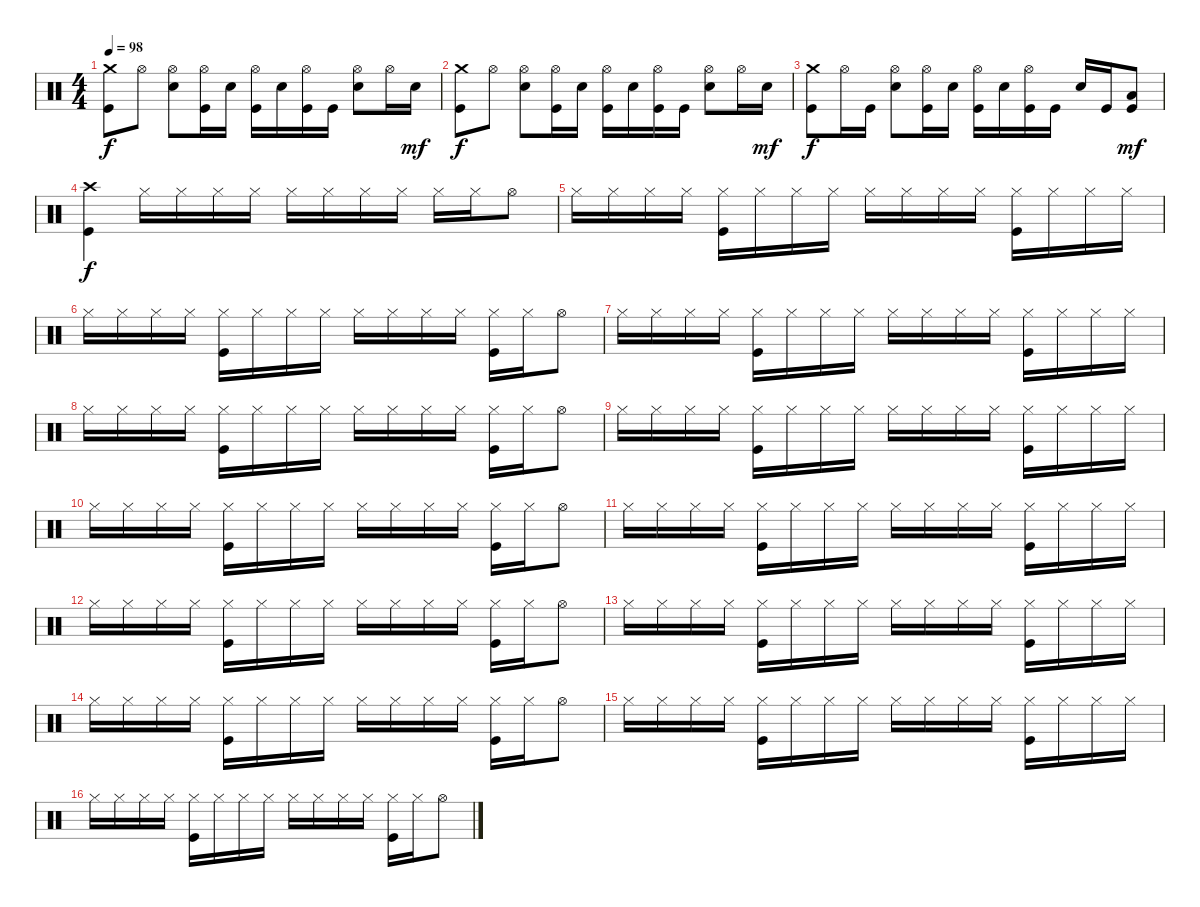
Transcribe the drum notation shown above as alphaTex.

\track "" {instrument percussion}
\staff {score}
\articulation defaults
\ts (4 4)
\tempo 98
\clef neutral
\ks c
("Crash medium (hit)" "Kick (hit)").8{dy f} "Hi-Hat (open)".8 ("Hi-Hat (open)" "Electric Snare (hit)").8 ("Hi-Hat (open)" "Kick (hit)").16 "Electric Snare (hit)".16 ("Hi-Hat (open)" "Kick (hit)").16 "Electric Snare (hit)".16 ("Hi-Hat (open)" "Kick (hit)").16 "Kick (hit)".16 ("Hi-Hat (open)" "Electric Snare (hit)").8 "Hi-Hat (open)".16 "Electric Snare (hit)".16{dy mf} |
("Crash medium (hit)" "Kick (hit)").8{dy f} "Hi-Hat (open)".8 ("Hi-Hat (open)" "Electric Snare (hit)").8 ("Hi-Hat (open)" "Kick (hit)").16 "Electric Snare (hit)".16 ("Hi-Hat (open)" "Kick (hit)").16 "Electric Snare (hit)".16 ("Hi-Hat (open)" "Kick (hit)").16 "Kick (hit)".16 ("Hi-Hat (open)" "Electric Snare (hit)").8 "Hi-Hat (open)".16 "Electric Snare (hit)".16{dy mf} |
("Crash medium (hit)" "Kick (hit)").8{dy f} "Hi-Hat (open)".16 "Kick (hit)".16 ("Hi-Hat (open)" "Electric Snare (hit)").8 ("Hi-Hat (open)" "Kick (hit)").16 "Electric Snare (hit)".16 ("Hi-Hat (open)" "Kick (hit)").16 "Electric Snare (hit)".16 ("Hi-Hat (open)" "Kick (hit)").16 "Kick (hit)".16 "Electric Snare (hit)".16 "Kick (hit)".16 ("Kick (hit)" "Low Floor Tom (hit)").8{dy mf} |
("Crash high (hit)" "Kick (hit)").4{dy f} "Hi-Hat (closed)".16 "Hi-Hat (closed)".16 "Hi-Hat (closed)".16 "Hi-Hat (closed)".16 "Hi-Hat (closed)".16 "Hi-Hat (closed)".16 "Hi-Hat (closed)".16 "Hi-Hat (closed)".16 "Hi-Hat (closed)".16 "Hi-Hat (closed)".16 "Hi-Hat (open)".8 |
"Hi-Hat (closed)".16 "Hi-Hat (closed)".16 "Hi-Hat (closed)".16 "Hi-Hat (closed)".16 ("Hi-Hat (closed)" "Kick (hit)").16 "Hi-Hat (closed)".16 "Hi-Hat (closed)".16 "Hi-Hat (closed)".16 "Hi-Hat (closed)".16 "Hi-Hat (closed)".16 "Hi-Hat (closed)".16 "Hi-Hat (closed)".16 ("Hi-Hat (closed)" "Kick (hit)").16 "Hi-Hat (closed)".16 "Hi-Hat (closed)".16 "Hi-Hat (closed)".16 |
"Hi-Hat (closed)".16 "Hi-Hat (closed)".16 "Hi-Hat (closed)".16 "Hi-Hat (closed)".16 ("Hi-Hat (closed)" "Kick (hit)").16 "Hi-Hat (closed)".16 "Hi-Hat (closed)".16 "Hi-Hat (closed)".16 "Hi-Hat (closed)".16 "Hi-Hat (closed)".16 "Hi-Hat (closed)".16 "Hi-Hat (closed)".16 ("Hi-Hat (closed)" "Kick (hit)").16 "Hi-Hat (closed)".16 "Hi-Hat (open)".8 |
"Hi-Hat (closed)".16 "Hi-Hat (closed)".16 "Hi-Hat (closed)".16 "Hi-Hat (closed)".16 ("Hi-Hat (closed)" "Kick (hit)").16 "Hi-Hat (closed)".16 "Hi-Hat (closed)".16 "Hi-Hat (closed)".16 "Hi-Hat (closed)".16 "Hi-Hat (closed)".16 "Hi-Hat (closed)".16 "Hi-Hat (closed)".16 ("Hi-Hat (closed)" "Kick (hit)").16 "Hi-Hat (closed)".16 "Hi-Hat (closed)".16 "Hi-Hat (closed)".16 |
"Hi-Hat (closed)".16 "Hi-Hat (closed)".16 "Hi-Hat (closed)".16 "Hi-Hat (closed)".16 ("Hi-Hat (closed)" "Kick (hit)").16 "Hi-Hat (closed)".16 "Hi-Hat (closed)".16 "Hi-Hat (closed)".16 "Hi-Hat (closed)".16 "Hi-Hat (closed)".16 "Hi-Hat (closed)".16 "Hi-Hat (closed)".16 ("Hi-Hat (closed)" "Kick (hit)").16 "Hi-Hat (closed)".16 "Hi-Hat (open)".8 |
"Hi-Hat (closed)".16 "Hi-Hat (closed)".16 "Hi-Hat (closed)".16 "Hi-Hat (closed)".16 ("Hi-Hat (closed)" "Kick (hit)").16 "Hi-Hat (closed)".16 "Hi-Hat (closed)".16 "Hi-Hat (closed)".16 "Hi-Hat (closed)".16 "Hi-Hat (closed)".16 "Hi-Hat (closed)".16 "Hi-Hat (closed)".16 ("Hi-Hat (closed)" "Kick (hit)").16 "Hi-Hat (closed)".16 "Hi-Hat (closed)".16 "Hi-Hat (closed)".16 |
"Hi-Hat (closed)".16 "Hi-Hat (closed)".16 "Hi-Hat (closed)".16 "Hi-Hat (closed)".16 ("Hi-Hat (closed)" "Kick (hit)").16 "Hi-Hat (closed)".16 "Hi-Hat (closed)".16 "Hi-Hat (closed)".16 "Hi-Hat (closed)".16 "Hi-Hat (closed)".16 "Hi-Hat (closed)".16 "Hi-Hat (closed)".16 ("Hi-Hat (closed)" "Kick (hit)").16 "Hi-Hat (closed)".16 "Hi-Hat (open)".8 |
"Hi-Hat (closed)".16 "Hi-Hat (closed)".16 "Hi-Hat (closed)".16 "Hi-Hat (closed)".16 ("Hi-Hat (closed)" "Kick (hit)").16 "Hi-Hat (closed)".16 "Hi-Hat (closed)".16 "Hi-Hat (closed)".16 "Hi-Hat (closed)".16 "Hi-Hat (closed)".16 "Hi-Hat (closed)".16 "Hi-Hat (closed)".16 ("Hi-Hat (closed)" "Kick (hit)").16 "Hi-Hat (closed)".16 "Hi-Hat (closed)".16 "Hi-Hat (closed)".16 |
"Hi-Hat (closed)".16 "Hi-Hat (closed)".16 "Hi-Hat (closed)".16 "Hi-Hat (closed)".16 ("Hi-Hat (closed)" "Kick (hit)").16 "Hi-Hat (closed)".16 "Hi-Hat (closed)".16 "Hi-Hat (closed)".16 "Hi-Hat (closed)".16 "Hi-Hat (closed)".16 "Hi-Hat (closed)".16 "Hi-Hat (closed)".16 ("Hi-Hat (closed)" "Kick (hit)").16 "Hi-Hat (closed)".16 "Hi-Hat (open)".8 |
"Hi-Hat (closed)".16 "Hi-Hat (closed)".16 "Hi-Hat (closed)".16 "Hi-Hat (closed)".16 ("Hi-Hat (closed)" "Kick (hit)").16 "Hi-Hat (closed)".16 "Hi-Hat (closed)".16 "Hi-Hat (closed)".16 "Hi-Hat (closed)".16 "Hi-Hat (closed)".16 "Hi-Hat (closed)".16 "Hi-Hat (closed)".16 ("Hi-Hat (closed)" "Kick (hit)").16 "Hi-Hat (closed)".16 "Hi-Hat (closed)".16 "Hi-Hat (closed)".16 |
"Hi-Hat (closed)".16 "Hi-Hat (closed)".16 "Hi-Hat (closed)".16 "Hi-Hat (closed)".16 ("Hi-Hat (closed)" "Kick (hit)").16 "Hi-Hat (closed)".16 "Hi-Hat (closed)".16 "Hi-Hat (closed)".16 "Hi-Hat (closed)".16 "Hi-Hat (closed)".16 "Hi-Hat (closed)".16 "Hi-Hat (closed)".16 ("Hi-Hat (closed)" "Kick (hit)").16 "Hi-Hat (closed)".16 "Hi-Hat (open)".8 |
"Hi-Hat (closed)".16 "Hi-Hat (closed)".16 "Hi-Hat (closed)".16 "Hi-Hat (closed)".16 ("Hi-Hat (closed)" "Kick (hit)").16 "Hi-Hat (closed)".16 "Hi-Hat (closed)".16 "Hi-Hat (closed)".16 "Hi-Hat (closed)".16 "Hi-Hat (closed)".16 "Hi-Hat (closed)".16 "Hi-Hat (closed)".16 ("Hi-Hat (closed)" "Kick (hit)").16 "Hi-Hat (closed)".16 "Hi-Hat (closed)".16 "Hi-Hat (closed)".16 |
"Hi-Hat (closed)".16 "Hi-Hat (closed)".16 "Hi-Hat (closed)".16 "Hi-Hat (closed)".16 ("Hi-Hat (closed)" "Kick (hit)").16 "Hi-Hat (closed)".16 "Hi-Hat (closed)".16 "Hi-Hat (closed)".16 "Hi-Hat (closed)".16 "Hi-Hat (closed)".16 "Hi-Hat (closed)".16 "Hi-Hat (closed)".16 ("Hi-Hat (closed)" "Kick (hit)").16 "Hi-Hat (closed)".16 "Hi-Hat (open)".8
